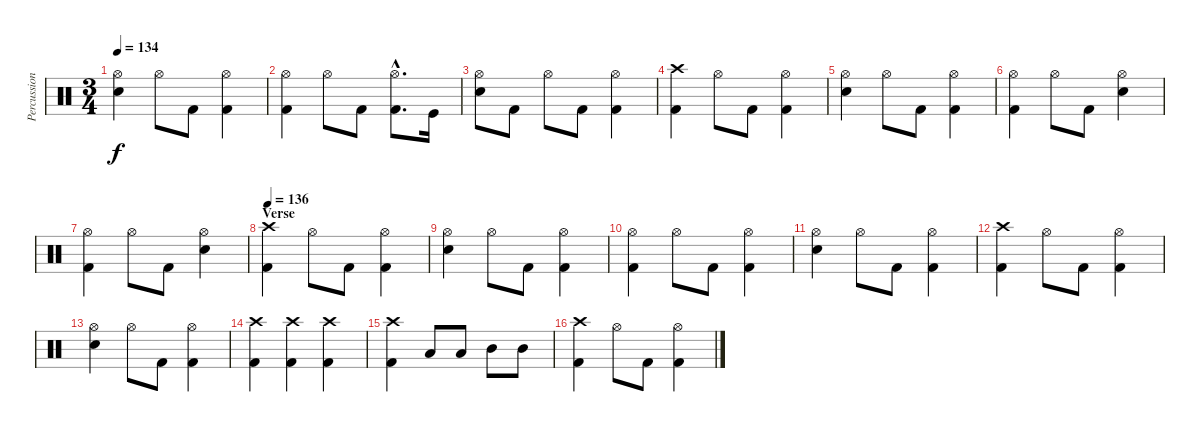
\track ("Percussion" "Percussion") {instrument percussion}
\staff {score}
\articulation defaults
\ts (3 4)
\tempo 134
\clef neutral
\ks c
("Hi-Hat (open)" "Snare (hit) 2").4{dy f} "Hi-Hat (open)".8 "Kick (hit) 2".8 ("Hi-Hat (open)" "Kick (hit) 2").4 |
("Hi-Hat (open)" "Kick (hit) 2").4 "Hi-Hat (open)".8 "Kick (hit) 2".8 ("Hi-Hat (open)"{hac} "Kick (hit) 2"{hac}).8{d} "Kick (hit)".16 |
("Hi-Hat (open)" "Snare (hit) 2").8 "Kick (hit) 2".8 "Hi-Hat (open)".8 "Kick (hit) 2".8 ("Hi-Hat (open)" "Kick (hit) 2").4 |
("Crash high (hit)" "Kick (hit) 2").4 "Hi-Hat (open)".8 "Kick (hit) 2".8 ("Hi-Hat (open)" "Kick (hit) 2").4 |
("Hi-Hat (open)" "Snare (hit) 2").4 "Hi-Hat (open)".8 "Kick (hit) 2".8 ("Hi-Hat (open)" "Kick (hit) 2").4 |
("Hi-Hat (open)" "Kick (hit) 2").4 "Hi-Hat (open)".8 "Kick (hit) 2".8 ("Hi-Hat (open)" "Snare (hit) 2").4 |
("Hi-Hat (open)" "Kick (hit) 2").4 "Hi-Hat (open)".8 "Kick (hit) 2".8 ("Hi-Hat (open)" "Snare (hit) 2").4 |
\section ("" "Verse")
\tempo 136
("Crash high (hit)" "Kick (hit) 2").4 "Hi-Hat (open)".8 "Kick (hit) 2".8 ("Hi-Hat (open)" "Kick (hit) 2").4 |
("Hi-Hat (open)" "Snare (hit) 2").4 "Hi-Hat (open)".8 "Kick (hit) 2".8 ("Hi-Hat (open)" "Kick (hit) 2").4 |
("Hi-Hat (open)" "Kick (hit) 2").4 "Hi-Hat (open)".8 "Kick (hit) 2".8 ("Hi-Hat (open)" "Kick (hit) 2").4 |
("Hi-Hat (open)" "Snare (hit) 2").4 "Hi-Hat (open)".8 "Kick (hit) 2".8 ("Hi-Hat (open)" "Kick (hit) 2").4 |
("Crash high (hit)" "Kick (hit) 2").4 "Hi-Hat (open)".8 "Kick (hit) 2".8 ("Hi-Hat (open)" "Kick (hit) 2").4 |
("Hi-Hat (open)" "Snare (hit) 2").4 "Hi-Hat (open)".8 "Kick (hit) 2".8 ("Hi-Hat (open)" "Kick (hit) 2").4 |
("Crash high (hit)" "Kick (hit) 2").4 ("Crash high (hit)" "Kick (hit) 2").4 ("Crash high (hit)" "Kick (hit) 2").4 |
("Crash high (hit)" "Kick (hit) 2").4 "Low Tom (hit)".8 "Low Tom (hit)".8 "Mid Tom (hit)".8 "Mid Tom (hit)".8 |
("Crash high (hit)" "Kick (hit) 2").4 "Hi-Hat (open)".8 "Kick (hit) 2".8 ("Hi-Hat (open)" "Kick (hit) 2").4
